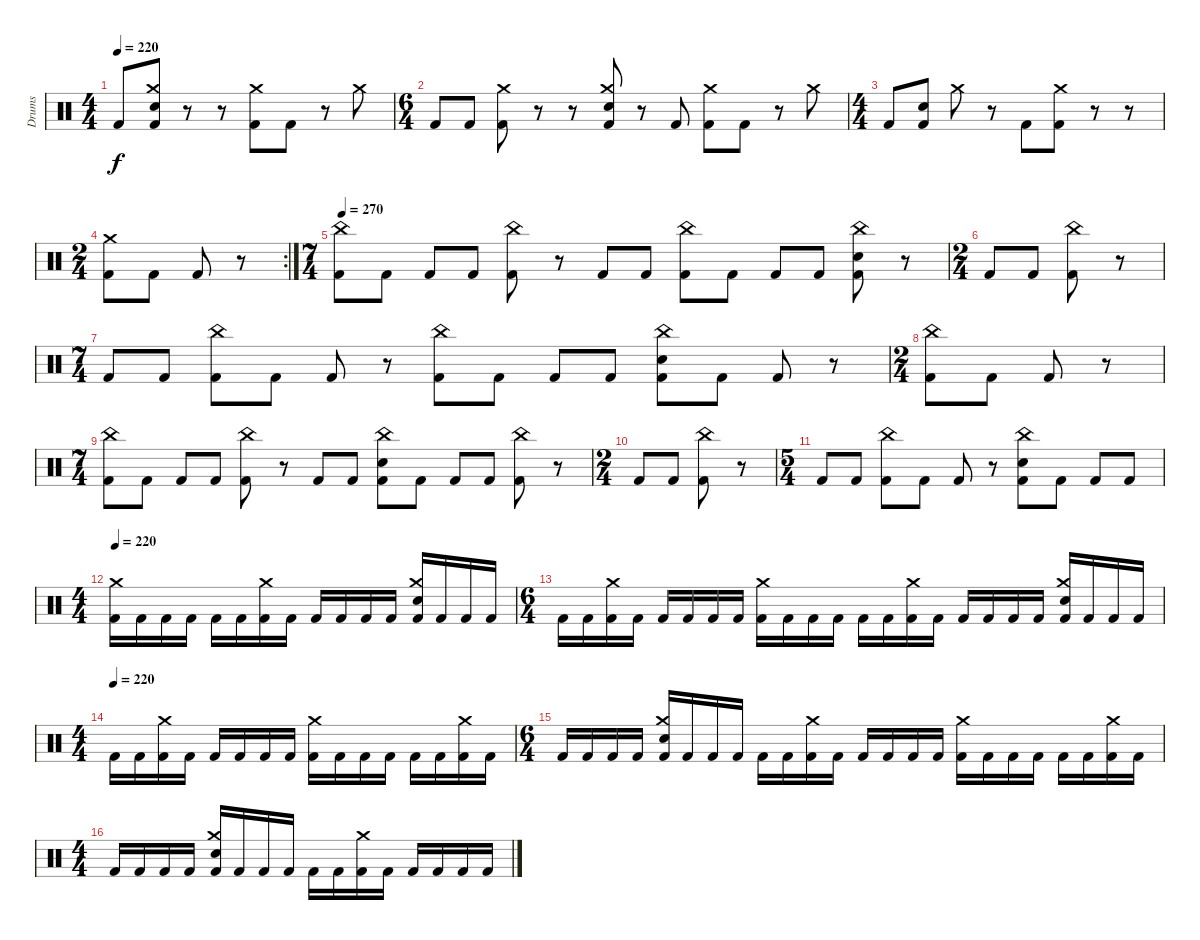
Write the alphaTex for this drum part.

\track ("Drums" "Drums") {instrument percussion}
\staff {score}
\articulation defaults
\ts (4 4)
\tempo 220
\clef neutral
\ks c "Kick (hit) 2".8{dy f}
("Crash medium (hit)" "Electric Snare (hit)" "Kick (hit) 2").8 r.8 r.8 ("Crash medium (hit)" "Kick (hit) 2").8 "Kick (hit) 2".8 r.8 "Crash medium (hit)".8 |
\ts (6 4)
"Kick (hit) 2".8 "Kick (hit) 2".8 ("Crash medium (hit)" "Kick (hit) 2").8 r.8 r.8 ("Crash medium (hit)" "Electric Snare (hit)" "Kick (hit) 2").8 r.8 "Kick (hit) 2".8 ("Crash medium (hit)" "Kick (hit) 2").8 "Kick (hit) 2".8 r.8 "Crash medium (hit)".8 |
\ts (4 4)
"Kick (hit) 2".8 ("Electric Snare (hit)" "Kick (hit) 2").8 "Crash medium (hit)".8 r.8 "Kick (hit) 2".8 ("Crash medium (hit)" "Kick (hit) 2").8 r.8 r.8 |
\rc 2
\ts (2 4)
("Crash medium (hit)" "Kick (hit) 2").8 "Kick (hit) 2".8 "Kick (hit) 2".8 r.8 |
\ts (7 4)
\tempo 270
("China (hit)" "Kick (hit) 2").8 "Kick (hit) 2".8 "Kick (hit) 2".8 "Kick (hit) 2".8 ("China (hit)" "Kick (hit) 2").8 r.8 "Kick (hit) 2".8 "Kick (hit) 2".8 ("China (hit)" "Kick (hit) 2").8 "Kick (hit) 2".8 "Kick (hit) 2".8 "Kick (hit) 2".8 ("China (hit)" "Electric Snare (hit)" "Kick (hit) 2").8 r.8 |
\ts (2 4)
"Kick (hit) 2".8 "Kick (hit) 2".8 ("China (hit)" "Kick (hit) 2").8 r.8 |
\ts (7 4)
"Kick (hit) 2".8 "Kick (hit) 2".8 ("China (hit)" "Kick (hit) 2").8 "Kick (hit) 2".8 "Kick (hit) 2".8 r.8 ("China (hit)" "Kick (hit) 2").8 "Kick (hit) 2".8 "Kick (hit) 2".8 "Kick (hit) 2".8 ("China (hit)" "Electric Snare (hit)" "Kick (hit) 2").8 "Kick (hit) 2".8 "Kick (hit) 2".8 r.8 |
\ts (2 4)
("China (hit)" "Kick (hit) 2").8 "Kick (hit) 2".8 "Kick (hit) 2".8 r.8 |
\ts (7 4)
("China (hit)" "Kick (hit) 2").8 "Kick (hit) 2".8 "Kick (hit) 2".8 "Kick (hit) 2".8 ("China (hit)" "Kick (hit) 2").8 r.8 "Kick (hit) 2".8 "Kick (hit) 2".8 ("China (hit)" "Electric Snare (hit)" "Kick (hit) 2").8 "Kick (hit) 2".8 "Kick (hit) 2".8 "Kick (hit) 2".8 ("China (hit)" "Kick (hit) 2").8 r.8 |
\ts (2 4)
"Kick (hit) 2".8 "Kick (hit) 2".8 ("China (hit)" "Kick (hit) 2").8 r.8 |
\ts (5 4)
"Kick (hit) 2".8 "Kick (hit) 2".8 ("China (hit)" "Kick (hit) 2").8 "Kick (hit) 2".8 "Kick (hit) 2".8 r.8 ("China (hit)" "Electric Snare (hit)" "Kick (hit) 2").8 "Kick (hit) 2".8 "Kick (hit) 2".8 "Kick (hit) 2".8 |
\ts (4 4)
\tempo 220
("Crash medium (hit)" "Kick (hit) 2").16 "Kick (hit) 2".16 "Kick (hit) 2".16 "Kick (hit) 2".16 "Kick (hit) 2".16 "Kick (hit) 2".16 ("Crash medium (hit)" "Kick (hit) 2").16 "Kick (hit) 2".16 "Kick (hit) 2".16 "Kick (hit) 2".16 "Kick (hit) 2".16 "Kick (hit) 2".16 ("Crash medium (hit)" "Electric Snare (hit)" "Kick (hit) 2").16 "Kick (hit) 2".16 "Kick (hit) 2".16 "Kick (hit) 2".16 |
\ts (6 4)
"Kick (hit) 2".16 "Kick (hit) 2".16 ("Crash medium (hit)" "Kick (hit) 2").16 "Kick (hit) 2".16 "Kick (hit) 2".16 "Kick (hit) 2".16 "Kick (hit) 2".16 "Kick (hit) 2".16 ("Crash medium (hit)" "Kick (hit) 2").16 "Kick (hit) 2".16 "Kick (hit) 2".16 "Kick (hit) 2".16 "Kick (hit) 2".16 "Kick (hit) 2".16 ("Crash medium (hit)" "Kick (hit) 2").16 "Kick (hit) 2".16 "Kick (hit) 2".16 "Kick (hit) 2".16 "Kick (hit) 2".16 "Kick (hit) 2".16 ("Crash medium (hit)" "Electric Snare (hit)" "Kick (hit) 2").16 "Kick (hit) 2".16 "Kick (hit) 2".16 "Kick (hit) 2".16 |
\ts (4 4)
\tempo (220)
"Kick (hit) 2".16 "Kick (hit) 2".16 ("Crash medium (hit)" "Kick (hit) 2").16 "Kick (hit) 2".16 "Kick (hit) 2".16 "Kick (hit) 2".16 "Kick (hit) 2".16 "Kick (hit) 2".16 ("Crash medium (hit)" "Kick (hit) 2").16 "Kick (hit) 2".16 "Kick (hit) 2".16 "Kick (hit) 2".16 "Kick (hit) 2".16 "Kick (hit) 2".16 ("Crash medium (hit)" "Kick (hit) 2").16 "Kick (hit) 2".16 |
\ts (6 4)
"Kick (hit) 2".16 "Kick (hit) 2".16 "Kick (hit) 2".16 "Kick (hit) 2".16 ("Crash medium (hit)" "Electric Snare (hit)" "Kick (hit) 2").16 "Kick (hit) 2".16 "Kick (hit) 2".16 "Kick (hit) 2".16 "Kick (hit) 2".16 "Kick (hit) 2".16 ("Crash medium (hit)" "Kick (hit) 2").16 "Kick (hit) 2".16 "Kick (hit) 2".16 "Kick (hit) 2".16 "Kick (hit) 2".16 "Kick (hit) 2".16 ("Crash medium (hit)" "Kick (hit) 2").16 "Kick (hit) 2".16 "Kick (hit) 2".16 "Kick (hit) 2".16 "Kick (hit) 2".16 "Kick (hit) 2".16 ("Crash medium (hit)" "Kick (hit) 2").16 "Kick (hit) 2".16 |
\ts (4 4)
"Kick (hit) 2".16 "Kick (hit) 2".16 "Kick (hit) 2".16 "Kick (hit) 2".16 ("Crash medium (hit)" "Electric Snare (hit)" "Kick (hit) 2").16 "Kick (hit) 2".16 "Kick (hit) 2".16 "Kick (hit) 2".16 "Kick (hit) 2".16 "Kick (hit) 2".16 ("Crash medium (hit)" "Kick (hit) 2").16 "Kick (hit) 2".16 "Kick (hit) 2".16 "Kick (hit) 2".16 "Kick (hit) 2".16 "Kick (hit) 2".16
